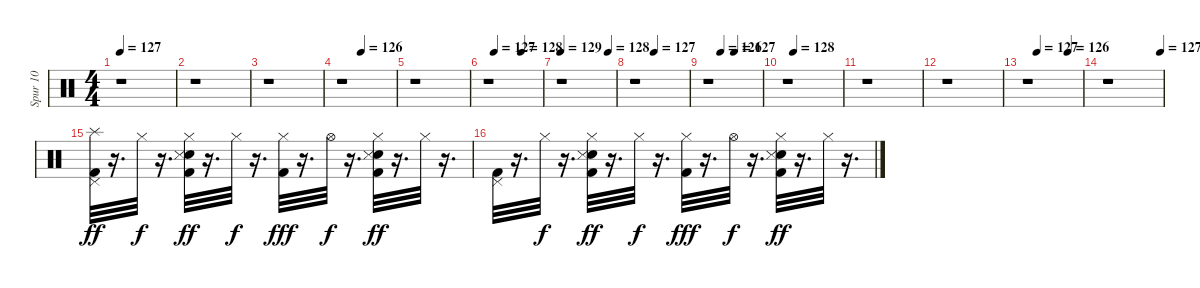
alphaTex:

\track ("Spur 10" "Spur 10") {instrument percussion}
\staff {score}
\articulation defaults
\ts (4 4)
\tempo 127
\clef neutral
\ks c
r.1{dy ff} |
r.1 |
r.1 |
\tempo (126 0.375)
r.1 |
r.1 |
\tempo (127 0.125)
\tempo (128 0.625)
r.1 |
\tempo 129
\tempo (128 0.875)
r.1 |
\tempo (127 0.375)
r.1 |
\tempo (126 0.25)
\tempo (127 0.5)
r.1 |
\tempo (128 0.125)
r.1 |
r.1 |
r.1 |
\tempo (127 0.1875)
\tempo (126 0.75)
r.1 |
\tempo (127 0.96875)
r.1 |
("Splash (hit)" "Kick (hit) 2" "Pedal Hi-Hat (hit)").32 r.16{d} "Hi-Hat (closed)".32{dy f} r.16{d} ("Snare (hit) 2" "Kick (hit) 2" "Hi-Hat (closed)" "Snare (side stick) 3").32{dy ff} r.16{d} "Hi-Hat (closed)".32{dy f} r.16{d} ("Kick (hit) 2" "Hi-Hat (closed)").32{dy fff} r.16{d} "Hi-Hat (open)".32{dy f} r.16{d} ("Snare (hit) 2" "Kick (hit) 2" "Hi-Hat (closed)" "Snare (side stick) 3").32{dy ff} r.16{d} "Hi-Hat (closed)".32 r.16{d} |
("Kick (hit) 2" "Pedal Hi-Hat (hit)").32 r.16{d} "Hi-Hat (closed)".32{dy f} r.16{d} ("Snare (hit) 2" "Kick (hit) 2" "Hi-Hat (closed)" "Snare (side stick) 3").32{dy ff} r.16{d} "Hi-Hat (closed)".32{dy f} r.16{d} ("Kick (hit) 2" "Hi-Hat (closed)").32{dy fff} r.16{d} "Hi-Hat (open)".32{dy f} r.16{d} ("Snare (hit) 2" "Kick (hit) 2" "Hi-Hat (closed)" "Snare (side stick) 3").32{dy ff} r.16{d} "Hi-Hat (closed)".32 r.16{d}
